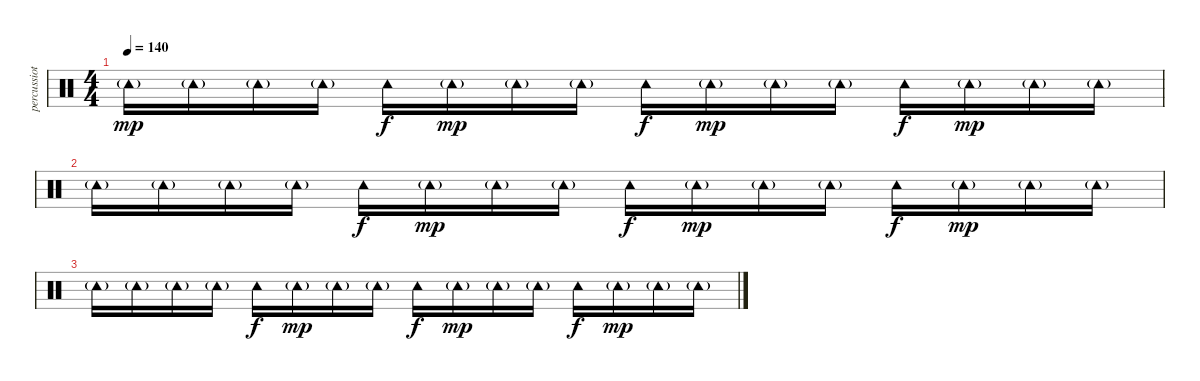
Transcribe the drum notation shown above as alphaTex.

\track ("percussiot" "percussiot") {instrument percussion}
\staff {score}
\articulation defaults
\ts (4 4)
\tempo 140
\clef neutral
\ks c "Tambourine (hit)"{g}.16{dy mp} "Tambourine (hit)"{g}.16 "Tambourine (hit)"{g}.16 "Tambourine (hit)"{g}.16 "Tambourine (hit)".16{dy f} "Tambourine (hit)"{g}.16{dy mp} "Tambourine (hit)"{g}.16 "Tambourine (hit)"{g}.16 "Tambourine (hit)".16{dy f} "Tambourine (hit)"{g}.16{dy mp} "Tambourine (hit)"{g}.16 "Tambourine (hit)"{g}.16 "Tambourine (hit)".16{dy f} "Tambourine (hit)"{g}.16{dy mp} "Tambourine (hit)"{g}.16 "Tambourine (hit)"{g}.16
|
"Tambourine (hit)"{g}.16 "Tambourine (hit)"{g}.16 "Tambourine (hit)"{g}.16 "Tambourine (hit)"{g}.16 "Tambourine (hit)".16{dy f} "Tambourine (hit)"{g}.16{dy mp} "Tambourine (hit)"{g}.16 "Tambourine (hit)"{g}.16 "Tambourine (hit)".16{dy f} "Tambourine (hit)"{g}.16{dy mp} "Tambourine (hit)"{g}.16 "Tambourine (hit)"{g}.16 "Tambourine (hit)".16{dy f} "Tambourine (hit)"{g}.16{dy mp} "Tambourine (hit)"{g}.16 "Tambourine (hit)"{g}.16 |
"Tambourine (hit)"{g}.16 "Tambourine (hit)"{g}.16 "Tambourine (hit)"{g}.16 "Tambourine (hit)"{g}.16 "Tambourine (hit)".16{dy f} "Tambourine (hit)"{g}.16{dy mp} "Tambourine (hit)"{g}.16 "Tambourine (hit)"{g}.16 "Tambourine (hit)".16{dy f} "Tambourine (hit)"{g}.16{dy mp} "Tambourine (hit)"{g}.16 "Tambourine (hit)"{g}.16 "Tambourine (hit)".16{dy f} "Tambourine (hit)"{g}.16{dy mp} "Tambourine (hit)"{g}.16 "Tambourine (hit)"{g}.16
